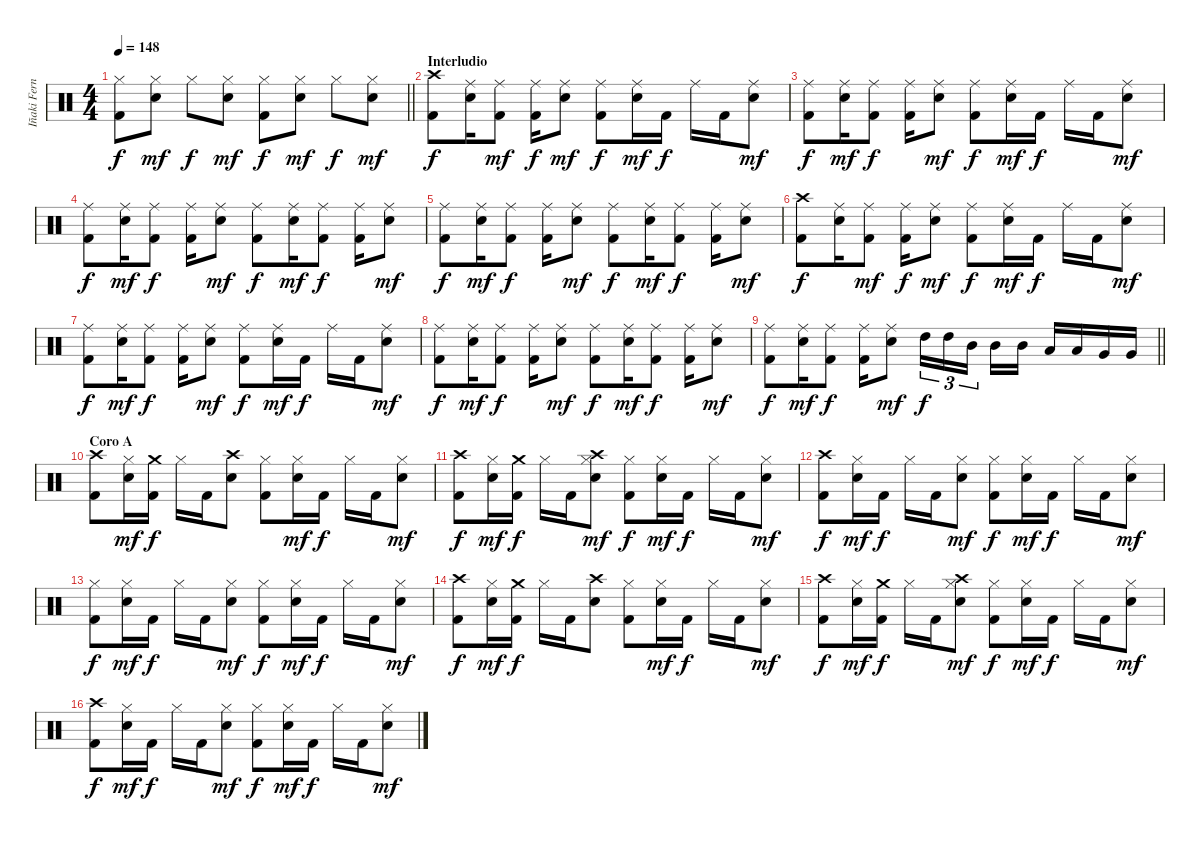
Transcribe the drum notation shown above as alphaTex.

\track ("Iñaki Fernández" "Iñaki Fern") {instrument percussion}
\staff {score}
\articulation defaults
\ts (4 4)
\tempo 148
\clef neutral
\barLineRight lightlight
\ks c
("Hi-Hat (closed)" "Kick (hit) 2").8{dy f} ("Hi-Hat (closed)" "Snare (hit) 2").8{dy mf} "Hi-Hat (closed)".8{dy f} ("Hi-Hat (closed)" "Snare (hit) 2").8{dy mf} ("Hi-Hat (closed)" "Kick (hit) 2").8{dy f} ("Hi-Hat (closed)" "Snare (hit) 2").8{dy mf} "Hi-Hat (closed)".8{dy f} ("Hi-Hat (closed)" "Snare (hit) 2").8{dy mf} |
\section ("" "Interludio")
("Crash high (hit)" "Kick (hit) 2").8{dy f} ("Ride (middle)" "Snare (hit) 2").16 ("Ride (middle)" "Kick (hit) 2").8{dy mf} ("Ride (middle)" "Kick (hit) 2").16{dy f} ("Ride (middle)" "Snare (hit) 2").8{dy mf} ("Ride (middle)" "Kick (hit) 2").8{dy f} ("Ride (middle)" "Snare (hit) 2").16{dy mf} "Kick (hit) 2".16{dy f} "Ride (middle)".16 "Kick (hit) 2".16 ("Ride (middle)" "Snare (hit) 2").8{dy mf} |
("Ride (middle)" "Kick (hit) 2").8{dy f} ("Ride (middle)" "Snare (hit) 2").16{dy mf} ("Ride (middle)" "Kick (hit) 2").8{dy f} ("Ride (middle)" "Kick (hit) 2").16 ("Ride (middle)" "Snare (hit) 2").8{dy mf} ("Ride (middle)" "Kick (hit) 2").8{dy f} ("Ride (middle)" "Snare (hit) 2").16{dy mf} "Kick (hit) 2".16{dy f} "Ride (middle)".16 "Kick (hit) 2".16 ("Ride (middle)" "Snare (hit) 2").8{dy mf} |
("Ride (middle)" "Kick (hit) 2").8{dy f} ("Ride (middle)" "Snare (hit) 2").16{dy mf} ("Ride (middle)" "Kick (hit) 2").8{dy f} ("Ride (middle)" "Kick (hit) 2").16 ("Ride (middle)" "Snare (hit) 2").8{dy mf} ("Ride (middle)" "Kick (hit) 2").8{dy f} ("Ride (middle)" "Snare (hit) 2").16{dy mf} ("Ride (middle)" "Kick (hit) 2").8{dy f} ("Ride (middle)" "Kick (hit) 2").16 ("Ride (middle)" "Snare (hit) 2").8{dy mf} |
("Ride (middle)" "Kick (hit) 2").8{dy f} ("Ride (middle)" "Snare (hit) 2").16{dy mf} ("Ride (middle)" "Kick (hit) 2").8{dy f} ("Ride (middle)" "Kick (hit) 2").16 ("Ride (middle)" "Snare (hit) 2").8{dy mf} ("Ride (middle)" "Kick (hit) 2").8{dy f} ("Ride (middle)" "Snare (hit) 2").16{dy mf} ("Ride (middle)" "Kick (hit) 2").8{dy f} ("Ride (middle)" "Kick (hit) 2").16 ("Ride (middle)" "Snare (hit) 2").8{dy mf} |
("Crash high (hit)" "Kick (hit) 2").8{dy f} ("Ride (middle)" "Snare (hit) 2").16 ("Ride (middle)" "Kick (hit) 2").8{dy mf} ("Ride (middle)" "Kick (hit) 2").16{dy f} ("Ride (middle)" "Snare (hit) 2").8{dy mf} ("Ride (middle)" "Kick (hit) 2").8{dy f} ("Ride (middle)" "Snare (hit) 2").16{dy mf} "Kick (hit) 2".16{dy f} "Ride (middle)".16 "Kick (hit) 2".16 ("Ride (middle)" "Snare (hit) 2").8{dy mf} |
("Ride (middle)" "Kick (hit) 2").8{dy f} ("Ride (middle)" "Snare (hit) 2").16{dy mf} ("Ride (middle)" "Kick (hit) 2").8{dy f} ("Ride (middle)" "Kick (hit) 2").16 ("Ride (middle)" "Snare (hit) 2").8{dy mf} ("Ride (middle)" "Kick (hit) 2").8{dy f} ("Ride (middle)" "Snare (hit) 2").16{dy mf} "Kick (hit) 2".16{dy f} "Ride (middle)".16 "Kick (hit) 2".16 ("Ride (middle)" "Snare (hit) 2").8{dy mf} |
("Ride (middle)" "Kick (hit) 2").8{dy f} ("Ride (middle)" "Snare (hit) 2").16{dy mf} ("Ride (middle)" "Kick (hit) 2").8{dy f} ("Ride (middle)" "Kick (hit) 2").16 ("Ride (middle)" "Snare (hit) 2").8{dy mf} ("Ride (middle)" "Kick (hit) 2").8{dy f} ("Ride (middle)" "Snare (hit) 2").16{dy mf} ("Ride (middle)" "Kick (hit) 2").8{dy f} ("Ride (middle)" "Kick (hit) 2").16 ("Ride (middle)" "Snare (hit) 2").8{dy mf} |
\barLineRight lightlight
("Ride (middle)" "Kick (hit) 2").8{dy f} ("Ride (middle)" "Snare (hit) 2").16{dy mf} ("Ride (middle)" "Kick (hit) 2").8{dy f} ("Ride (middle)" "Kick (hit) 2").16 ("Ride (middle)" "Snare (hit) 2").8{dy mf} "High Tom (hit)".16{tu (3 2) dy f} "High Tom (hit)".16{tu (3 2)} "Mid Tom (hit)".16{tu (3 2) beam splitsecondary} "Mid Tom (hit)".16 "Mid Tom (hit)".16 "Low Tom (hit)".16 "Low Tom (hit)".16 "Very Low Tom (hit)".16 "Very Low Tom (hit)".16 |
\section ("" "Coro A")
("Crash high (hit)" "Kick (hit) 2").8 ("Hi-Hat (closed)" "Snare (hit) 2").16{dy mf} ("Crash medium (hit)" "Kick (hit) 2").16{dy f} "Hi-Hat (closed)".16 "Kick (hit) 2".16 ("Snare (hit) 2" "Crash high (hit)").8 ("Hi-Hat (closed)" "Kick (hit) 2").8 ("Hi-Hat (closed)" "Snare (hit) 2").16{dy mf} "Kick (hit) 2".16{dy f} "Hi-Hat (closed)".16 "Kick (hit) 2".16 ("Hi-Hat (closed)" "Snare (hit) 2").8{dy mf} |
("Crash high (hit)" "Kick (hit) 2").8{dy f} ("Hi-Hat (closed)" "Snare (hit) 2").16{dy mf} ("Crash medium (hit)" "Kick (hit) 2").16{dy f} "Hi-Hat (closed)".16 "Kick (hit) 2".16 ("Hi-Hat (closed)" "Snare (hit) 2" "Crash high (hit)").8{dy mf} ("Hi-Hat (closed)" "Kick (hit) 2").8{dy f} ("Hi-Hat (closed)" "Snare (hit) 2").16{dy mf} "Kick (hit) 2".16{dy f} "Hi-Hat (closed)".16 "Kick (hit) 2".16 ("Hi-Hat (closed)" "Snare (hit) 2").8{dy mf} |
("Crash high (hit)" "Kick (hit) 2").8{dy f} ("Hi-Hat (closed)" "Snare (hit) 2").16{dy mf} "Kick (hit) 2".16{dy f} "Hi-Hat (closed)".16 "Kick (hit) 2".16 ("Hi-Hat (closed)" "Snare (hit) 2").8{dy mf} ("Hi-Hat (closed)" "Kick (hit) 2").8{dy f} ("Hi-Hat (closed)" "Snare (hit) 2").16{dy mf} "Kick (hit) 2".16{dy f} "Hi-Hat (closed)".16 "Kick (hit) 2".16 ("Hi-Hat (closed)" "Snare (hit) 2").8{dy mf} |
("Hi-Hat (closed)" "Kick (hit) 2").8{dy f} ("Hi-Hat (closed)" "Snare (hit) 2").16{dy mf} "Kick (hit) 2".16{dy f} "Hi-Hat (closed)".16 "Kick (hit) 2".16 ("Hi-Hat (closed)" "Snare (hit) 2").8{dy mf} ("Hi-Hat (closed)" "Kick (hit) 2").8{dy f} ("Hi-Hat (closed)" "Snare (hit) 2").16{dy mf} "Kick (hit) 2".16{dy f} "Hi-Hat (closed)".16 "Kick (hit) 2".16 ("Hi-Hat (closed)" "Snare (hit) 2").8{dy mf} |
("Crash high (hit)" "Kick (hit) 2").8{dy f} ("Hi-Hat (closed)" "Snare (hit) 2").16{dy mf} ("Crash medium (hit)" "Kick (hit) 2").16{dy f} "Hi-Hat (closed)".16 "Kick (hit) 2".16 ("Snare (hit) 2" "Crash high (hit)").8 ("Hi-Hat (closed)" "Kick (hit) 2").8 ("Hi-Hat (closed)" "Snare (hit) 2").16{dy mf} "Kick (hit) 2".16{dy f} "Hi-Hat (closed)".16 "Kick (hit) 2".16 ("Hi-Hat (closed)" "Snare (hit) 2").8{dy mf} |
("Crash high (hit)" "Kick (hit) 2").8{dy f} ("Hi-Hat (closed)" "Snare (hit) 2").16{dy mf} ("Crash medium (hit)" "Kick (hit) 2").16{dy f} "Hi-Hat (closed)".16 "Kick (hit) 2".16 ("Hi-Hat (closed)" "Snare (hit) 2" "Crash high (hit)").8{dy mf} ("Hi-Hat (closed)" "Kick (hit) 2").8{dy f} ("Hi-Hat (closed)" "Snare (hit) 2").16{dy mf} "Kick (hit) 2".16{dy f} "Hi-Hat (closed)".16 "Kick (hit) 2".16 ("Hi-Hat (closed)" "Snare (hit) 2").8{dy mf} |
("Crash high (hit)" "Kick (hit) 2").8{dy f} ("Hi-Hat (closed)" "Snare (hit) 2").16{dy mf} "Kick (hit) 2".16{dy f} "Hi-Hat (closed)".16 "Kick (hit) 2".16 ("Hi-Hat (closed)" "Snare (hit) 2").8{dy mf} ("Hi-Hat (closed)" "Kick (hit) 2").8{dy f} ("Hi-Hat (closed)" "Snare (hit) 2").16{dy mf} "Kick (hit) 2".16{dy f} "Hi-Hat (closed)".16 "Kick (hit) 2".16 ("Hi-Hat (closed)" "Snare (hit) 2").8{dy mf}
